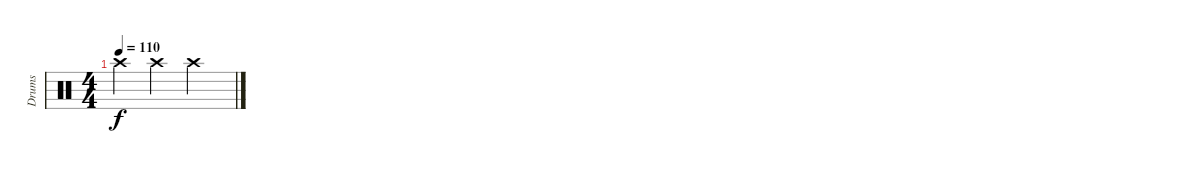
\track ("Drums" "Drums") {instrument percussion}
\staff {score}
\articulation defaults
\ts (4 4)
\tempo 110
\clef neutral
\ks c "Crash high (hit)".4{dy f} "Crash high (hit)".4 "Crash high (hit)".2
